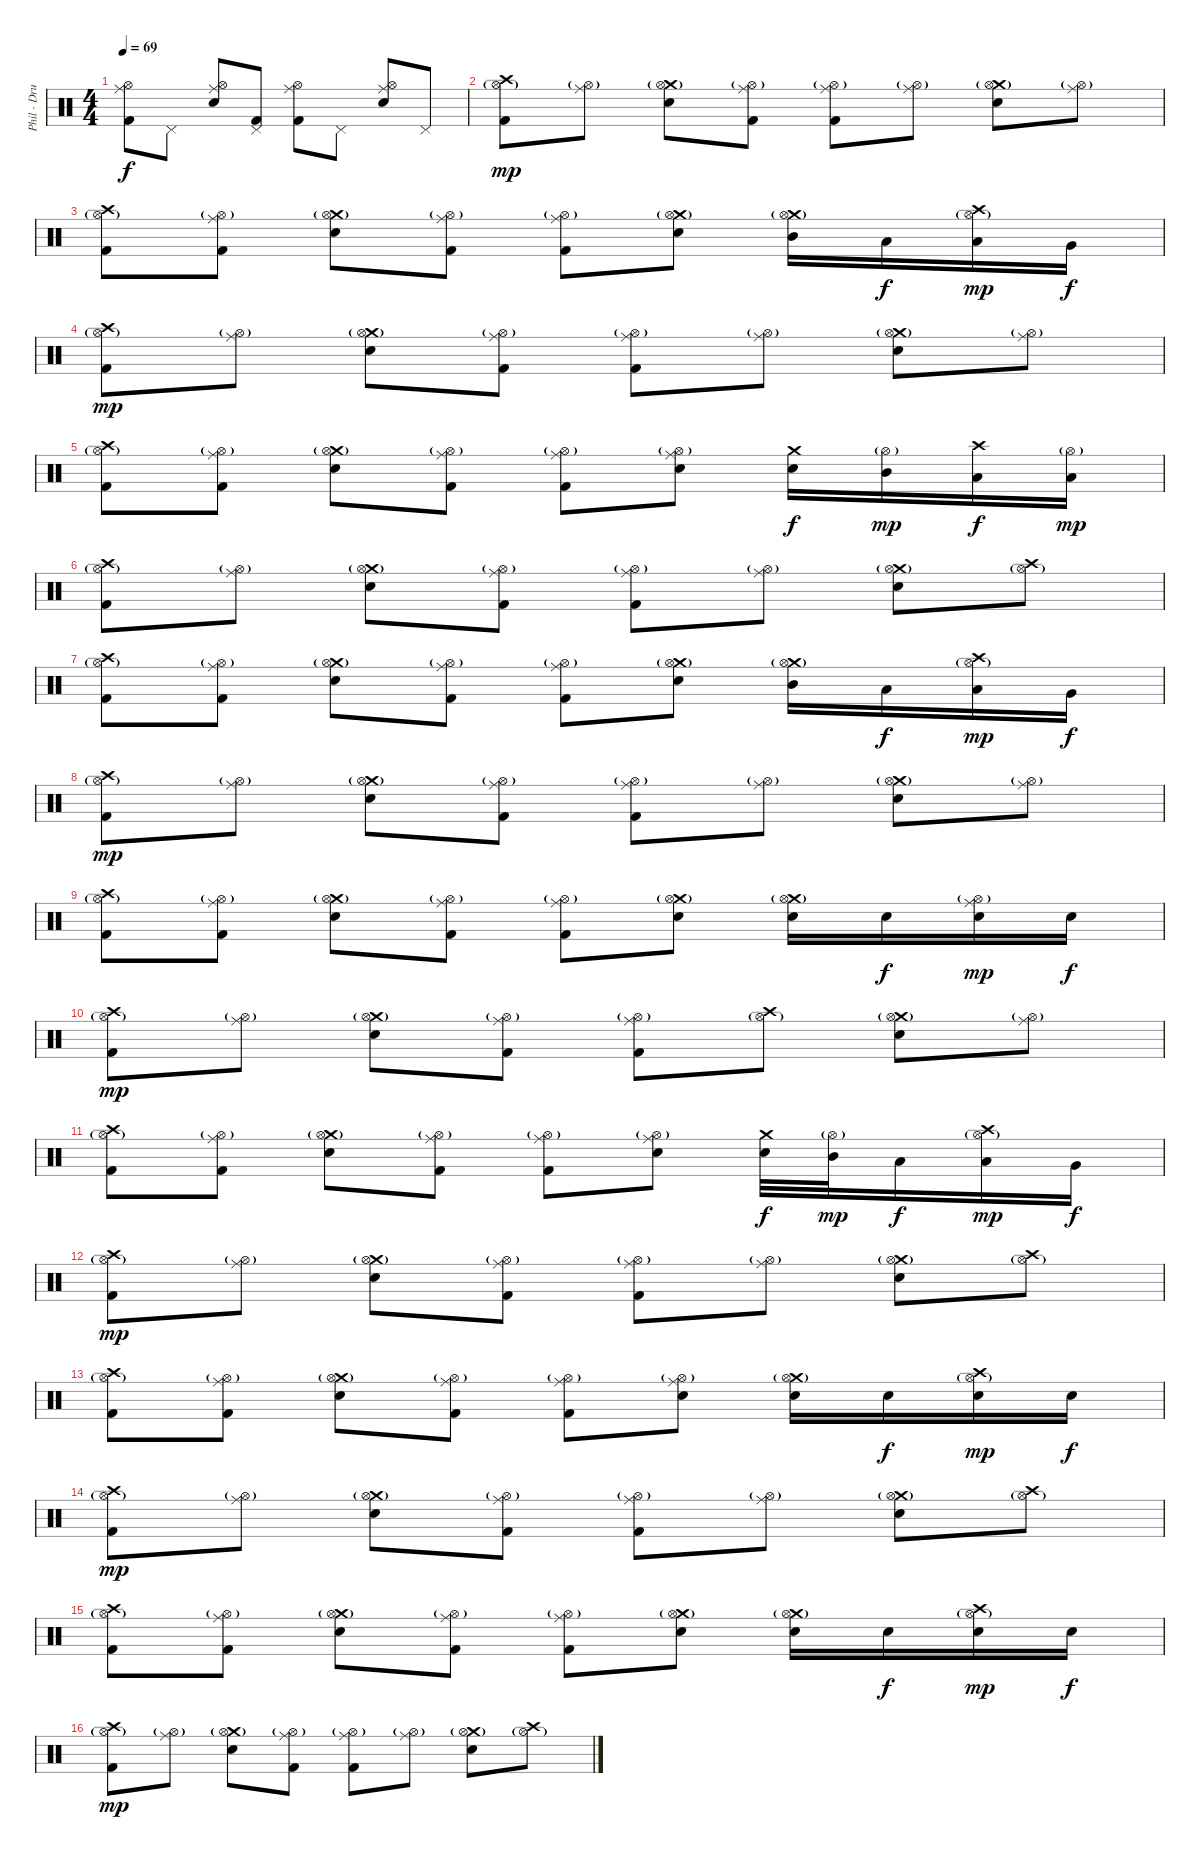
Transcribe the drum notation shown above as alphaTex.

\track ("Phil - Drums" "Phil - Dru") {instrument percussion}
\staff {score}
\articulation defaults
\ts (4 4)
\tempo 69
\clef neutral
\ks c
("Ride (middle)" "Kick (hit) 2" "Hi-Hat (open)").8{dy f} "Pedal Hi-Hat (hit)".8 ("Ride (middle)" "Snare (hit) 2" "Hi-Hat (open)").8 ("Kick (hit) 2" "Pedal Hi-Hat (hit)").8 ("Ride (middle)" "Kick (hit) 2" "Hi-Hat (open)").8 "Pedal Hi-Hat (hit)".8 ("Ride (middle)" "Snare (hit) 2" "Hi-Hat (open)").8 "Pedal Hi-Hat (hit)".8 |
("Crash high (hit)" "Kick (hit) 2" "Hi-Hat (open)"{g}).8{dy mp} ("Ride (middle)" "Hi-Hat (open)"{g}).8 ("Crash medium (hit)" "Electric Snare (hit)" "Hi-Hat (open)"{g}).8 ("Ride (middle)" "Kick (hit) 2" "Hi-Hat (open)"{g}).8 ("Ride (middle)" "Kick (hit) 2" "Hi-Hat (open)"{g}).8 ("Ride (middle)" "Hi-Hat (open)"{g}).8 ("Crash medium (hit)" "Electric Snare (hit)" "Hi-Hat (open)"{g}).8 ("Ride (middle)" "Hi-Hat (open)"{g}).8 |
("Crash high (hit)" "Kick (hit) 2" "Hi-Hat (open)"{g}).8 ("Ride (middle)" "Kick (hit) 2" "Hi-Hat (open)"{g}).8 ("Crash medium (hit)" "Electric Snare (hit)" "Hi-Hat (open)"{g}).8 ("Ride (middle)" "Kick (hit) 2" "Hi-Hat (open)"{g}).8 ("Ride (middle)" "Kick (hit) 2" "Hi-Hat (open)"{g}).8 ("Crash medium (hit)" "Electric Snare (hit)" "Hi-Hat (open)"{g}).8 ("Crash medium (hit)" "Mid Tom (hit)" "Hi-Hat (open)"{g}).16 "Low Tom (hit)".16{dy f} ("Crash high (hit)" "Low Tom (hit)" "Hi-Hat (open)"{g}).16{dy mp} "Very Low Tom (hit)".16{dy f} |
("Crash high (hit)" "Kick (hit) 2" "Hi-Hat (open)"{g}).8{dy mp} ("Ride (middle)" "Hi-Hat (open)"{g}).8 ("Crash medium (hit)" "Electric Snare (hit)" "Hi-Hat (open)"{g}).8 ("Ride (middle)" "Kick (hit) 2" "Hi-Hat (open)"{g}).8 ("Ride (middle)" "Kick (hit) 2" "Hi-Hat (open)"{g}).8 ("Ride (middle)" "Hi-Hat (open)"{g}).8 ("Crash medium (hit)" "Electric Snare (hit)" "Hi-Hat (open)"{g}).8 ("Ride (middle)" "Hi-Hat (open)"{g}).8 |
("Crash high (hit)" "Kick (hit) 2" "Hi-Hat (open)"{g}).8 ("Ride (middle)" "Kick (hit) 2" "Hi-Hat (open)"{g}).8 ("Crash medium (hit)" "Electric Snare (hit)" "Hi-Hat (open)"{g}).8 ("Ride (middle)" "Kick (hit) 2" "Hi-Hat (open)"{g}).8 ("Ride (middle)" "Kick (hit) 2" "Hi-Hat (open)"{g}).8 ("Ride (middle)" "Electric Snare (hit)" "Hi-Hat (open)"{g}).8 ("Crash medium (hit)" "Electric Snare (hit)").16{dy f} ("Mid Tom (hit)" "Hi-Hat (open)"{g}).16{dy mp} ("Crash high (hit)" "Low Tom (hit)").16{dy f} ("Low Tom (hit)" "Hi-Hat (open)"{g}).16{dy mp} |
("Crash high (hit)" "Kick (hit) 2" "Hi-Hat (open)"{g}).8 ("Ride (middle)" "Hi-Hat (open)"{g}).8 ("Crash medium (hit)" "Electric Snare (hit)" "Hi-Hat (open)"{g}).8 ("Ride (middle)" "Kick (hit) 2" "Hi-Hat (open)"{g}).8 ("Ride (middle)" "Kick (hit) 2" "Hi-Hat (open)"{g}).8 ("Ride (middle)" "Hi-Hat (open)"{g}).8 ("Crash medium (hit)" "Electric Snare (hit)" "Hi-Hat (open)"{g}).8 ("Crash high (hit)" "Hi-Hat (open)"{g}).8 |
("Crash high (hit)" "Kick (hit) 2" "Hi-Hat (open)"{g}).8 ("Ride (middle)" "Kick (hit) 2" "Hi-Hat (open)"{g}).8 ("Crash medium (hit)" "Electric Snare (hit)" "Hi-Hat (open)"{g}).8 ("Ride (middle)" "Kick (hit) 2" "Hi-Hat (open)"{g}).8 ("Ride (middle)" "Kick (hit) 2" "Hi-Hat (open)"{g}).8 ("Crash medium (hit)" "Electric Snare (hit)" "Hi-Hat (open)"{g}).8 ("Crash medium (hit)" "Mid Tom (hit)" "Hi-Hat (open)"{g}).16 "Low Tom (hit)".16{dy f} ("Crash high (hit)" "Low Tom (hit)" "Hi-Hat (open)"{g}).16{dy mp} "Very Low Tom (hit)".16{dy f} |
("Crash high (hit)" "Kick (hit) 2" "Hi-Hat (open)"{g}).8{dy mp} ("Ride (middle)" "Hi-Hat (open)"{g}).8 ("Crash medium (hit)" "Electric Snare (hit)" "Hi-Hat (open)"{g}).8 ("Ride (middle)" "Kick (hit) 2" "Hi-Hat (open)"{g}).8 ("Ride (middle)" "Kick (hit) 2" "Hi-Hat (open)"{g}).8 ("Ride (middle)" "Hi-Hat (open)"{g}).8 ("Crash medium (hit)" "Electric Snare (hit)" "Hi-Hat (open)"{g}).8 ("Ride (middle)" "Hi-Hat (open)"{g}).8 |
("Crash high (hit)" "Kick (hit) 2" "Hi-Hat (open)"{g}).8 ("Ride (middle)" "Kick (hit) 2" "Hi-Hat (open)"{g}).8 ("Crash medium (hit)" "Electric Snare (hit)" "Hi-Hat (open)"{g}).8 ("Ride (middle)" "Kick (hit) 2" "Hi-Hat (open)"{g}).8 ("Ride (middle)" "Kick (hit) 2" "Hi-Hat (open)"{g}).8 ("Crash medium (hit)" "Electric Snare (hit)" "Hi-Hat (open)"{g}).8 ("Crash medium (hit)" "Electric Snare (hit)" "Hi-Hat (open)"{g}).16 "Electric Snare (hit)".16{dy f} ("Ride (middle)" "Electric Snare (hit)" "Hi-Hat (open)"{g}).16{dy mp} "Electric Snare (hit)".16{dy f} |
("Crash high (hit)" "Kick (hit) 2" "Hi-Hat (open)"{g}).8{dy mp} ("Ride (middle)" "Hi-Hat (open)"{g}).8 ("Crash medium (hit)" "Electric Snare (hit)" "Hi-Hat (open)"{g}).8 ("Ride (middle)" "Kick (hit) 2" "Hi-Hat (open)"{g}).8 ("Ride (middle)" "Kick (hit) 2" "Hi-Hat (open)"{g}).8 ("Crash high (hit)" "Hi-Hat (open)"{g}).8 ("Crash medium (hit)" "Electric Snare (hit)" "Hi-Hat (open)"{g}).8 ("Ride (middle)" "Hi-Hat (open)"{g}).8 |
("Crash high (hit)" "Kick (hit) 2" "Hi-Hat (open)"{g}).8 ("Ride (middle)" "Kick (hit) 2" "Hi-Hat (open)"{g}).8 ("Crash medium (hit)" "Electric Snare (hit)" "Hi-Hat (open)"{g}).8 ("Ride (middle)" "Kick (hit) 2" "Hi-Hat (open)"{g}).8 ("Ride (middle)" "Kick (hit) 2" "Hi-Hat (open)"{g}).8 ("Ride (middle)" "Electric Snare (hit)" "Hi-Hat (open)"{g}).8 ("Crash medium (hit)" "Electric Snare (hit)").32{dy f} ("Mid Tom (hit)" "Hi-Hat (open)"{g}).32{dy mp} "Low Tom (hit)".16{dy f} ("Crash high (hit)" "Low Tom (hit)" "Hi-Hat (open)"{g}).16{dy mp} "Very Low Tom (hit)".16{dy f} |
("Crash high (hit)" "Kick (hit) 2" "Hi-Hat (open)"{g}).8{dy mp} ("Ride (middle)" "Hi-Hat (open)"{g}).8 ("Crash medium (hit)" "Electric Snare (hit)" "Hi-Hat (open)"{g}).8 ("Ride (middle)" "Kick (hit) 2" "Hi-Hat (open)"{g}).8 ("Ride (middle)" "Kick (hit) 2" "Hi-Hat (open)"{g}).8 ("Ride (middle)" "Hi-Hat (open)"{g}).8 ("Crash medium (hit)" "Electric Snare (hit)" "Hi-Hat (open)"{g}).8 ("Crash high (hit)" "Hi-Hat (open)"{g}).8 |
("Crash high (hit)" "Kick (hit) 2" "Hi-Hat (open)"{g}).8 ("Ride (middle)" "Kick (hit) 2" "Hi-Hat (open)"{g}).8 ("Crash medium (hit)" "Electric Snare (hit)" "Hi-Hat (open)"{g}).8 ("Ride (middle)" "Kick (hit) 2" "Hi-Hat (open)"{g}).8 ("Ride (middle)" "Kick (hit) 2" "Hi-Hat (open)"{g}).8 ("Ride (middle)" "Electric Snare (hit)" "Hi-Hat (open)"{g}).8 ("Crash medium (hit)" "Electric Snare (hit)" "Hi-Hat (open)"{g}).16 "Electric Snare (hit)".16{dy f} ("Crash high (hit)" "Electric Snare (hit)" "Hi-Hat (open)"{g}).16{dy mp} "Electric Snare (hit)".16{dy f} |
("Crash high (hit)" "Kick (hit) 2" "Hi-Hat (open)"{g}).8{dy mp} ("Ride (middle)" "Hi-Hat (open)"{g}).8 ("Crash medium (hit)" "Electric Snare (hit)" "Hi-Hat (open)"{g}).8 ("Ride (middle)" "Kick (hit) 2" "Hi-Hat (open)"{g}).8 ("Ride (middle)" "Kick (hit) 2" "Hi-Hat (open)"{g}).8 ("Ride (middle)" "Hi-Hat (open)"{g}).8 ("Crash medium (hit)" "Electric Snare (hit)" "Hi-Hat (open)"{g}).8 ("Crash high (hit)" "Hi-Hat (open)"{g}).8 |
("Crash high (hit)" "Kick (hit) 2" "Hi-Hat (open)"{g}).8 ("Ride (middle)" "Kick (hit) 2" "Hi-Hat (open)"{g}).8 ("Crash medium (hit)" "Electric Snare (hit)" "Hi-Hat (open)"{g}).8 ("Ride (middle)" "Kick (hit) 2" "Hi-Hat (open)"{g}).8 ("Ride (middle)" "Kick (hit) 2" "Hi-Hat (open)"{g}).8 ("Crash medium (hit)" "Electric Snare (hit)" "Hi-Hat (open)"{g}).8 ("Crash medium (hit)" "Electric Snare (hit)" "Hi-Hat (open)"{g}).16 "Electric Snare (hit)".16{dy f} ("Crash high (hit)" "Electric Snare (hit)" "Hi-Hat (open)"{g}).16{dy mp} "Electric Snare (hit)".16{dy f} |
("Crash high (hit)" "Kick (hit) 2" "Hi-Hat (open)"{g}).8{dy mp} ("Ride (middle)" "Hi-Hat (open)"{g}).8 ("Crash medium (hit)" "Electric Snare (hit)" "Hi-Hat (open)"{g}).8 ("Ride (middle)" "Kick (hit) 2" "Hi-Hat (open)"{g}).8 ("Ride (middle)" "Kick (hit) 2" "Hi-Hat (open)"{g}).8 ("Ride (middle)" "Hi-Hat (open)"{g}).8 ("Crash medium (hit)" "Electric Snare (hit)" "Hi-Hat (open)"{g}).8 ("Crash high (hit)" "Hi-Hat (open)"{g}).8
